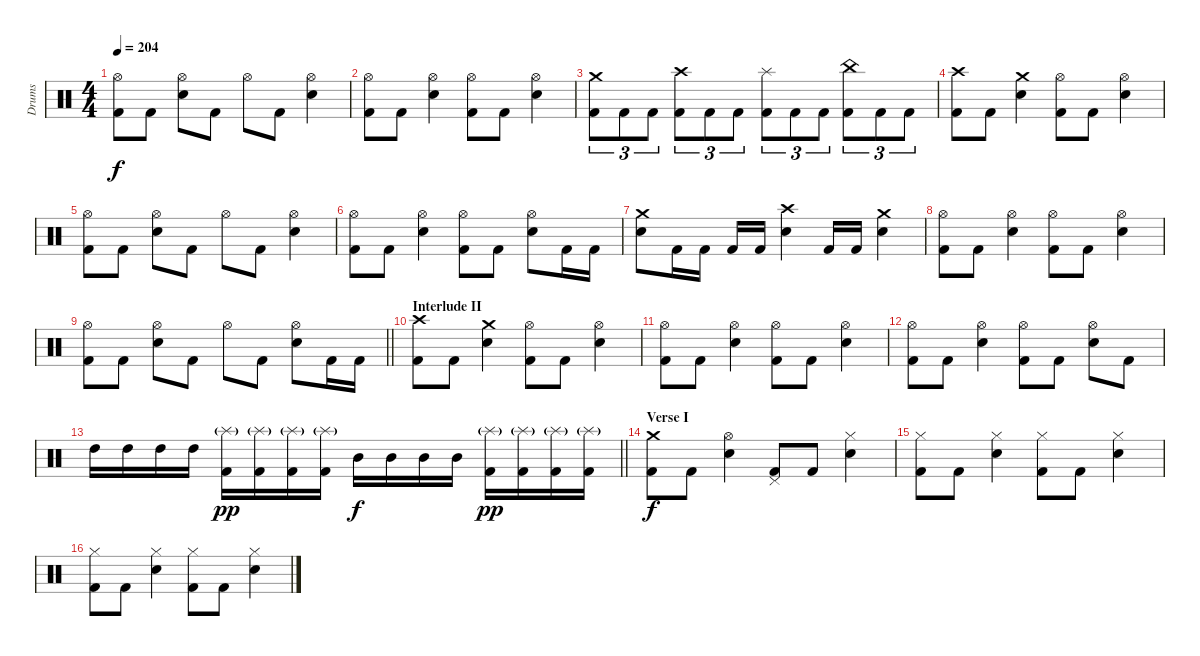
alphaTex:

\track ("Drums" "Drums") {instrument percussion}
\staff {score}
\articulation defaults
\ts (4 4)
\tempo 204
\clef neutral
\ks c
("Hi-Hat (open)" "Kick (hit) 2").8{dy f} "Kick (hit) 2".8 ("Hi-Hat (open)" "Electric Snare (hit)").8 "Kick (hit) 2".8 "Hi-Hat (open)".8 "Kick (hit) 2".8 ("Hi-Hat (open)" "Electric Snare (hit)").4 |
("Hi-Hat (open)" "Kick (hit) 2").8 "Kick (hit) 2".8 ("Hi-Hat (open)" "Electric Snare (hit)").4 ("Hi-Hat (open)" "Kick (hit) 2").8 "Kick (hit) 2".8 ("Hi-Hat (open)" "Electric Snare (hit)").4 |
("Crash medium (hit)" "Kick (hit) 2").8{tu (3 2)} "Kick (hit) 2".8{tu (3 2)} "Kick (hit) 2".8{tu (3 2)} ("Crash high (hit)" "Kick (hit) 2").8{tu (3 2)} "Kick (hit) 2".8{tu (3 2)} "Kick (hit) 2".8{tu (3 2)} ("Splash (hit)" "Kick (hit) 2").8{tu (3 2)} "Kick (hit) 2".8{tu (3 2)} "Kick (hit) 2".8{tu (3 2)} ("China (hit)" "Kick (hit) 2").8{tu (3 2)} "Kick (hit) 2".8{tu (3 2)} "Kick (hit) 2".8{tu (3 2)} |
("Crash high (hit)" "Kick (hit) 2").8 "Kick (hit) 2".8 ("Crash medium (hit)" "Electric Snare (hit)").4 ("Hi-Hat (open)" "Kick (hit) 2").8 "Kick (hit) 2".8 ("Hi-Hat (open)" "Electric Snare (hit)").4 |
("Hi-Hat (open)" "Kick (hit) 2").8 "Kick (hit) 2".8 ("Hi-Hat (open)" "Electric Snare (hit)").8 "Kick (hit) 2".8 "Hi-Hat (open)".8 "Kick (hit) 2".8 ("Hi-Hat (open)" "Electric Snare (hit)").4 |
("Hi-Hat (open)" "Kick (hit) 2").8 "Kick (hit) 2".8 ("Hi-Hat (open)" "Electric Snare (hit)").4 ("Hi-Hat (open)" "Kick (hit) 2").8 "Kick (hit) 2".8 ("Hi-Hat (open)" "Electric Snare (hit)").8 "Kick (hit) 2".16 "Kick (hit) 2".16 |
("Crash medium (hit)" "Electric Snare (hit)").8 "Kick (hit) 2".16 "Kick (hit) 2".16 "Kick (hit) 2".16 "Kick (hit) 2".16 ("Crash high (hit)" "Electric Snare (hit)").4 "Kick (hit) 2".16 "Kick (hit) 2".16 ("Crash medium (hit)" "Electric Snare (hit)").4 |
("Hi-Hat (open)" "Kick (hit) 2").8 "Kick (hit) 2".8 ("Hi-Hat (open)" "Electric Snare (hit)").4 ("Hi-Hat (open)" "Kick (hit) 2").8 "Kick (hit) 2".8 ("Hi-Hat (open)" "Electric Snare (hit)").4 |
\barLineRight lightlight
("Hi-Hat (open)" "Kick (hit) 2").8 "Kick (hit) 2".8 ("Hi-Hat (open)" "Electric Snare (hit)").8 "Kick (hit) 2".8 "Hi-Hat (open)".8 "Kick (hit) 2".8 ("Hi-Hat (open)" "Electric Snare (hit)").8 "Kick (hit) 2".16 "Kick (hit) 2".16 |
\section ("" "Interlude II")
("Crash high (hit)" "Kick (hit) 2").8 "Kick (hit) 2".8 ("Crash medium (hit)" "Electric Snare (hit)").4 ("Hi-Hat (open)" "Kick (hit) 2").8 "Kick (hit) 2".8 ("Hi-Hat (open)" "Electric Snare (hit)").4 |
("Hi-Hat (open)" "Kick (hit) 2").8 "Kick (hit) 2".8 ("Hi-Hat (open)" "Electric Snare (hit)").4 ("Hi-Hat (open)" "Kick (hit) 2").8 "Kick (hit) 2".8 ("Hi-Hat (open)" "Electric Snare (hit)").4 |
("Hi-Hat (open)" "Kick (hit) 2").8 "Kick (hit) 2".8 ("Hi-Hat (open)" "Electric Snare (hit)").4 ("Hi-Hat (open)" "Kick (hit) 2").8 "Kick (hit) 2".8 ("Hi-Hat (open)" "Electric Snare (hit)").8 "Kick (hit) 2".8 |
\barLineRight lightlight "High Tom (hit)".16 "High Tom (hit)".16 "High Tom (hit)".16 "High Tom (hit)".16
("Splash (hit)"{g} "Kick (hit) 2").16{dy pp} ("Splash (hit)"{g} "Kick (hit) 2").16 ("Splash (hit)"{g} "Kick (hit) 2").16 ("Splash (hit)"{g} "Kick (hit) 2").16 "Mid Tom (hit)".16{dy f} "Mid Tom (hit)".16 "Mid Tom (hit)".16 "Mid Tom (hit)".16 ("Splash (hit)"{g} "Kick (hit) 2").16{dy pp} ("Splash (hit)"{g} "Kick (hit) 2").16 ("Splash (hit)"{g} "Kick (hit) 2").16 ("Splash (hit)"{g} "Kick (hit) 2").16 |
\section ("" "Verse I")
("Crash medium (hit)" "Kick (hit) 2").8{dy f} "Kick (hit) 2".8 ("Hi-Hat (open)" "Electric Snare (hit)").4 ("Pedal Hi-Hat (hit)" "Kick (hit) 2").8 "Kick (hit) 2".8 ("Hi-Hat (closed)" "Electric Snare (hit)").4 |
("Hi-Hat (closed)" "Kick (hit) 2").8 "Kick (hit) 2".8 ("Hi-Hat (closed)" "Electric Snare (hit)").4 ("Hi-Hat (closed)" "Kick (hit) 2").8 "Kick (hit) 2".8 ("Hi-Hat (closed)" "Electric Snare (hit)").4 |
("Hi-Hat (closed)" "Kick (hit) 2").8 "Kick (hit) 2".8 ("Hi-Hat (closed)" "Electric Snare (hit)").4 ("Hi-Hat (closed)" "Kick (hit) 2").8 "Kick (hit) 2".8 ("Hi-Hat (closed)" "Electric Snare (hit)").4
